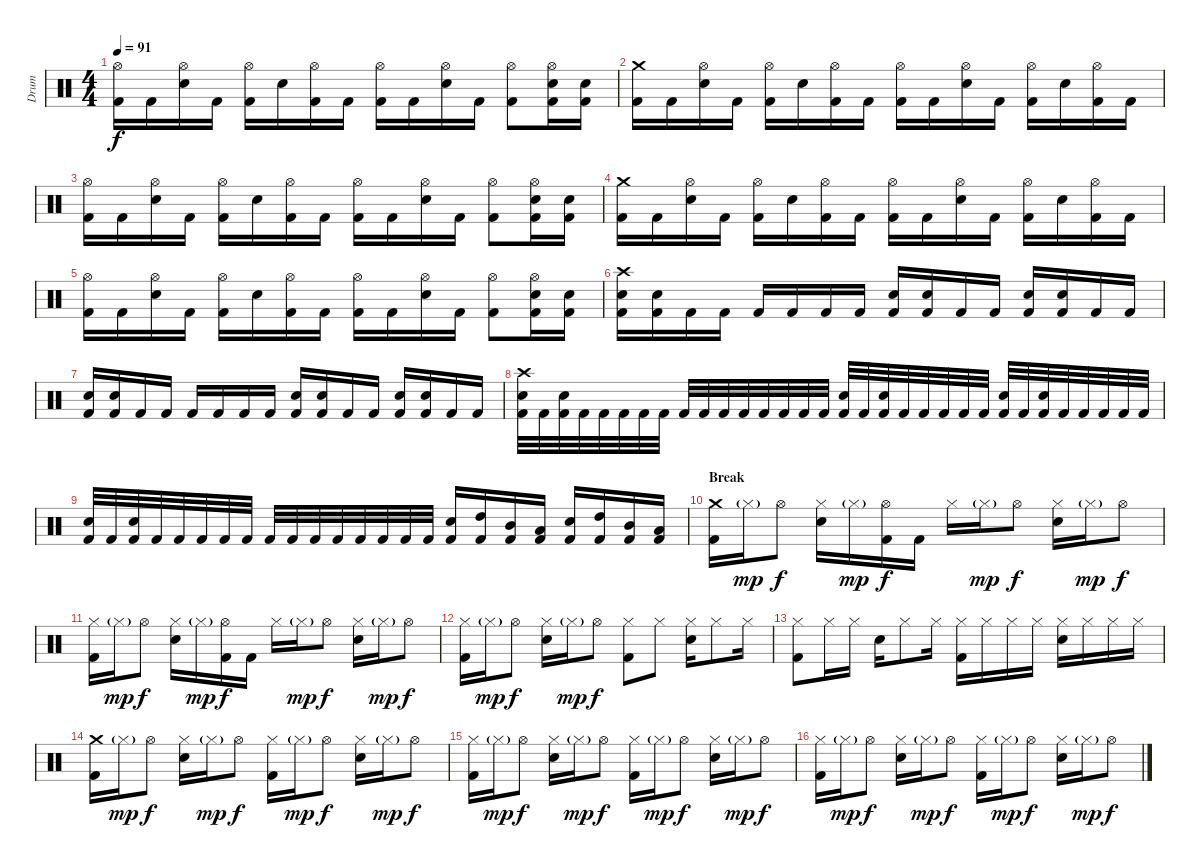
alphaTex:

\track ("Drum" "Drum") {instrument percussion}
\staff {score}
\articulation defaults
\ts (4 4)
\tempo 91
\clef neutral
\ks c
("Hi-Hat (open)" "Kick (hit) 2").16{dy f} "Kick (hit) 2".16 ("Hi-Hat (open)" "Snare (hit) 2").16 "Kick (hit) 2".16 ("Hi-Hat (open)" "Kick (hit) 2").16 "Snare (hit) 2".16 ("Hi-Hat (open)" "Kick (hit) 2").16 "Kick (hit) 2".16 ("Hi-Hat (open)" "Kick (hit) 2").16 "Kick (hit) 2".16 ("Hi-Hat (open)" "Snare (hit) 2").16 "Kick (hit) 2".16 ("Hi-Hat (open)" "Kick (hit) 2").8 ("Hi-Hat (open)" "Snare (hit) 2" "Kick (hit) 2").16 ("Snare (hit) 2" "Kick (hit) 2").16 |
("Crash medium (hit)" "Kick (hit) 2").16 "Kick (hit) 2".16 ("Hi-Hat (open)" "Snare (hit) 2").16 "Kick (hit) 2".16 ("Hi-Hat (open)" "Kick (hit) 2").16 "Snare (hit) 2".16 ("Hi-Hat (open)" "Kick (hit) 2").16 "Kick (hit) 2".16 ("Hi-Hat (open)" "Kick (hit) 2").16 "Kick (hit) 2".16 ("Hi-Hat (open)" "Snare (hit) 2").16 "Kick (hit) 2".16 ("Hi-Hat (open)" "Kick (hit) 2").16 "Snare (hit) 2".16 ("Hi-Hat (open)" "Kick (hit) 2").16 "Kick (hit) 2".16 |
("Hi-Hat (open)" "Kick (hit) 2").16 "Kick (hit) 2".16 ("Hi-Hat (open)" "Snare (hit) 2").16 "Kick (hit) 2".16 ("Hi-Hat (open)" "Kick (hit) 2").16 "Snare (hit) 2".16 ("Hi-Hat (open)" "Kick (hit) 2").16 "Kick (hit) 2".16 ("Hi-Hat (open)" "Kick (hit) 2").16 "Kick (hit) 2".16 ("Hi-Hat (open)" "Snare (hit) 2").16 "Kick (hit) 2".16 ("Hi-Hat (open)" "Kick (hit) 2").8 ("Hi-Hat (open)" "Snare (hit) 2" "Kick (hit) 2").16 ("Snare (hit) 2" "Kick (hit) 2").16 |
("Crash medium (hit)" "Kick (hit) 2").16 "Kick (hit) 2".16 ("Hi-Hat (open)" "Snare (hit) 2").16 "Kick (hit) 2".16 ("Hi-Hat (open)" "Kick (hit) 2").16 "Snare (hit) 2".16 ("Hi-Hat (open)" "Kick (hit) 2").16 "Kick (hit) 2".16 ("Hi-Hat (open)" "Kick (hit) 2").16 "Kick (hit) 2".16 ("Hi-Hat (open)" "Snare (hit) 2").16 "Kick (hit) 2".16 ("Hi-Hat (open)" "Kick (hit) 2").16 "Snare (hit) 2".16 ("Hi-Hat (open)" "Kick (hit) 2").16 "Kick (hit) 2".16 |
("Hi-Hat (open)" "Kick (hit) 2").16 "Kick (hit) 2".16 ("Hi-Hat (open)" "Snare (hit) 2").16 "Kick (hit) 2".16 ("Hi-Hat (open)" "Kick (hit) 2").16 "Snare (hit) 2".16 ("Hi-Hat (open)" "Kick (hit) 2").16 "Kick (hit) 2".16 ("Hi-Hat (open)" "Kick (hit) 2").16 "Kick (hit) 2".16 ("Hi-Hat (open)" "Snare (hit) 2").16 "Kick (hit) 2".16 ("Hi-Hat (open)" "Kick (hit) 2").8 ("Hi-Hat (open)" "Snare (hit) 2" "Kick (hit) 2").16 ("Snare (hit) 2" "Kick (hit) 2").16 |
("Crash high (hit)" "Snare (hit) 2" "Kick (hit) 2").16 ("Snare (hit) 2" "Kick (hit) 2").16 "Kick (hit) 2".16 "Kick (hit) 2".16 "Kick (hit) 2".16 "Kick (hit) 2".16 "Kick (hit) 2".16 "Kick (hit) 2".16 ("Snare (hit) 2" "Kick (hit) 2").16 ("Snare (hit) 2" "Kick (hit) 2").16 "Kick (hit) 2".16 "Kick (hit) 2".16 ("Snare (hit) 2" "Kick (hit) 2").16 ("Snare (hit) 2" "Kick (hit) 2").16 "Kick (hit) 2".16 "Kick (hit) 2".16 |
("Snare (hit) 2" "Kick (hit) 2").16 ("Snare (hit) 2" "Kick (hit) 2").16 "Kick (hit) 2".16 "Kick (hit) 2".16 "Kick (hit) 2".16 "Kick (hit) 2".16 "Kick (hit) 2".16 "Kick (hit) 2".16 ("Snare (hit) 2" "Kick (hit) 2").16 ("Snare (hit) 2" "Kick (hit) 2").16 "Kick (hit) 2".16 "Kick (hit) 2".16 ("Snare (hit) 2" "Kick (hit) 2").16 ("Snare (hit) 2" "Kick (hit) 2").16 "Kick (hit) 2".16 "Kick (hit) 2".16 |
("Crash high (hit)" "Snare (hit) 2" "Kick (hit) 2").32 "Kick (hit) 2".32 ("Snare (hit) 2" "Kick (hit) 2").32 "Kick (hit) 2".32 "Kick (hit) 2".32 "Kick (hit) 2".32 "Kick (hit) 2".32 "Kick (hit) 2".32 "Kick (hit) 2".32 "Kick (hit) 2".32 "Kick (hit) 2".32 "Kick (hit) 2".32 "Kick (hit) 2".32 "Kick (hit) 2".32 "Kick (hit) 2".32 "Kick (hit) 2".32 ("Snare (hit) 2" "Kick (hit) 2").32 "Kick (hit) 2".32 ("Snare (hit) 2" "Kick (hit) 2").32 "Kick (hit) 2".32 "Kick (hit) 2".32 "Kick (hit) 2".32 "Kick (hit) 2".32 "Kick (hit) 2".32 ("Snare (hit) 2" "Kick (hit) 2").32 "Kick (hit) 2".32 ("Snare (hit) 2" "Kick (hit) 2").32 "Kick (hit) 2".32 "Kick (hit) 2".32 "Kick (hit) 2".32 "Kick (hit) 2".32 "Kick (hit) 2".32 |
("Snare (hit) 2" "Kick (hit) 2").32 "Kick (hit) 2".32 ("Snare (hit) 2" "Kick (hit) 2").32 "Kick (hit) 2".32 "Kick (hit) 2".32 "Kick (hit) 2".32 "Kick (hit) 2".32 "Kick (hit) 2".32 "Kick (hit) 2".32 "Kick (hit) 2".32 "Kick (hit) 2".32 "Kick (hit) 2".32 "Kick (hit) 2".32 "Kick (hit) 2".32 "Kick (hit) 2".32 "Kick (hit) 2".32 ("Snare (hit) 2" "Kick (hit) 2").16 ("High Tom (hit)" "Kick (hit) 2").16 ("Mid Tom (hit)" "Kick (hit) 2").16 ("Low Tom (hit)" "Kick (hit) 2").16 ("Snare (hit) 2" "Kick (hit) 2").16 ("High Tom (hit)" "Kick (hit) 2").16 ("Mid Tom (hit)" "Kick (hit) 2").16 ("Low Tom (hit)" "Kick (hit) 2").16 |
\section ("" "Break")
("Crash medium (hit)" "Kick (hit) 2").16 "Hi-Hat (closed)"{g}.16{dy mp} "Hi-Hat (open)".8{dy f} ("Hi-Hat (closed)" "Snare (hit) 2").16 "Hi-Hat (closed)"{g}.16{dy mp} ("Hi-Hat (open)" "Kick (hit) 2").16{dy f} "Kick (hit) 2".16 "Hi-Hat (closed)".16 "Hi-Hat (closed)"{g}.16{dy mp} "Hi-Hat (open)".8{dy f} ("Hi-Hat (closed)" "Snare (hit) 2").16 "Hi-Hat (closed)"{g}.16{dy mp} "Hi-Hat (open)".8{dy f} |
("Hi-Hat (closed)" "Kick (hit) 2").16 "Hi-Hat (closed)"{g}.16{dy mp} "Hi-Hat (open)".8{dy f} ("Hi-Hat (closed)" "Snare (hit) 2").16 "Hi-Hat (closed)"{g}.16{dy mp} ("Hi-Hat (open)" "Kick (hit) 2").16{dy f} "Kick (hit) 2".16 "Hi-Hat (closed)".16 "Hi-Hat (closed)"{g}.16{dy mp} "Hi-Hat (open)".8{dy f} ("Hi-Hat (closed)" "Snare (hit) 2").16 "Hi-Hat (closed)"{g}.16{dy mp} "Hi-Hat (open)".8{dy f} |
("Hi-Hat (closed)" "Kick (hit) 2").16 "Hi-Hat (closed)"{g}.16{dy mp} "Hi-Hat (open)".8{dy f} ("Hi-Hat (closed)" "Snare (hit) 2").16 "Hi-Hat (closed)"{g}.16{dy mp} "Hi-Hat (open)".8{dy f} ("Hi-Hat (closed)" "Kick (hit) 2").8 "Hi-Hat (closed)".8 ("Hi-Hat (closed)" "Snare (hit) 2").16 "Hi-Hat (closed)".8 "Hi-Hat (closed)".16 |
("Hi-Hat (closed)" "Kick (hit) 2").8 "Hi-Hat (closed)".16 "Hi-Hat (closed)".16 "Snare (hit) 2".16 "Hi-Hat (closed)".8 "Hi-Hat (closed)".16 ("Hi-Hat (closed)" "Kick (hit) 2").16 "Hi-Hat (closed)".16 "Hi-Hat (closed)".16 "Hi-Hat (closed)".16 ("Hi-Hat (closed)" "Snare (hit) 2").16 "Hi-Hat (closed)".16 "Hi-Hat (closed)".16 "Hi-Hat (closed)".16 |
("Crash medium (hit)" "Kick (hit) 2").16 "Hi-Hat (closed)"{g}.16{dy mp} "Hi-Hat (open)".8{dy f} ("Hi-Hat (closed)" "Snare (hit) 2").16 "Hi-Hat (closed)"{g}.16{dy mp} "Hi-Hat (open)".8{dy f} ("Hi-Hat (closed)" "Kick (hit) 2").16 "Hi-Hat (closed)"{g}.16{dy mp} "Hi-Hat (open)".8{dy f} ("Hi-Hat (closed)" "Snare (hit) 2").16 "Hi-Hat (closed)"{g}.16{dy mp} "Hi-Hat (open)".8{dy f} |
("Hi-Hat (closed)" "Kick (hit) 2").16 "Hi-Hat (closed)"{g}.16{dy mp} "Hi-Hat (open)".8{dy f} ("Hi-Hat (closed)" "Snare (hit) 2").16 "Hi-Hat (closed)"{g}.16{dy mp} "Hi-Hat (open)".8{dy f} ("Hi-Hat (closed)" "Kick (hit) 2").16 "Hi-Hat (closed)"{g}.16{dy mp} "Hi-Hat (open)".8{dy f} ("Hi-Hat (closed)" "Snare (hit) 2").16 "Hi-Hat (closed)"{g}.16{dy mp} "Hi-Hat (open)".8{dy f} |
("Hi-Hat (closed)" "Kick (hit) 2").16 "Hi-Hat (closed)"{g}.16{dy mp} "Hi-Hat (open)".8{dy f} ("Hi-Hat (closed)" "Snare (hit) 2").16 "Hi-Hat (closed)"{g}.16{dy mp} "Hi-Hat (open)".8{dy f} ("Hi-Hat (closed)" "Kick (hit) 2").16 "Hi-Hat (closed)"{g}.16{dy mp} "Hi-Hat (open)".8{dy f} ("Hi-Hat (closed)" "Snare (hit) 2").16 "Hi-Hat (closed)"{g}.16{dy mp} "Hi-Hat (open)".8{dy f}
